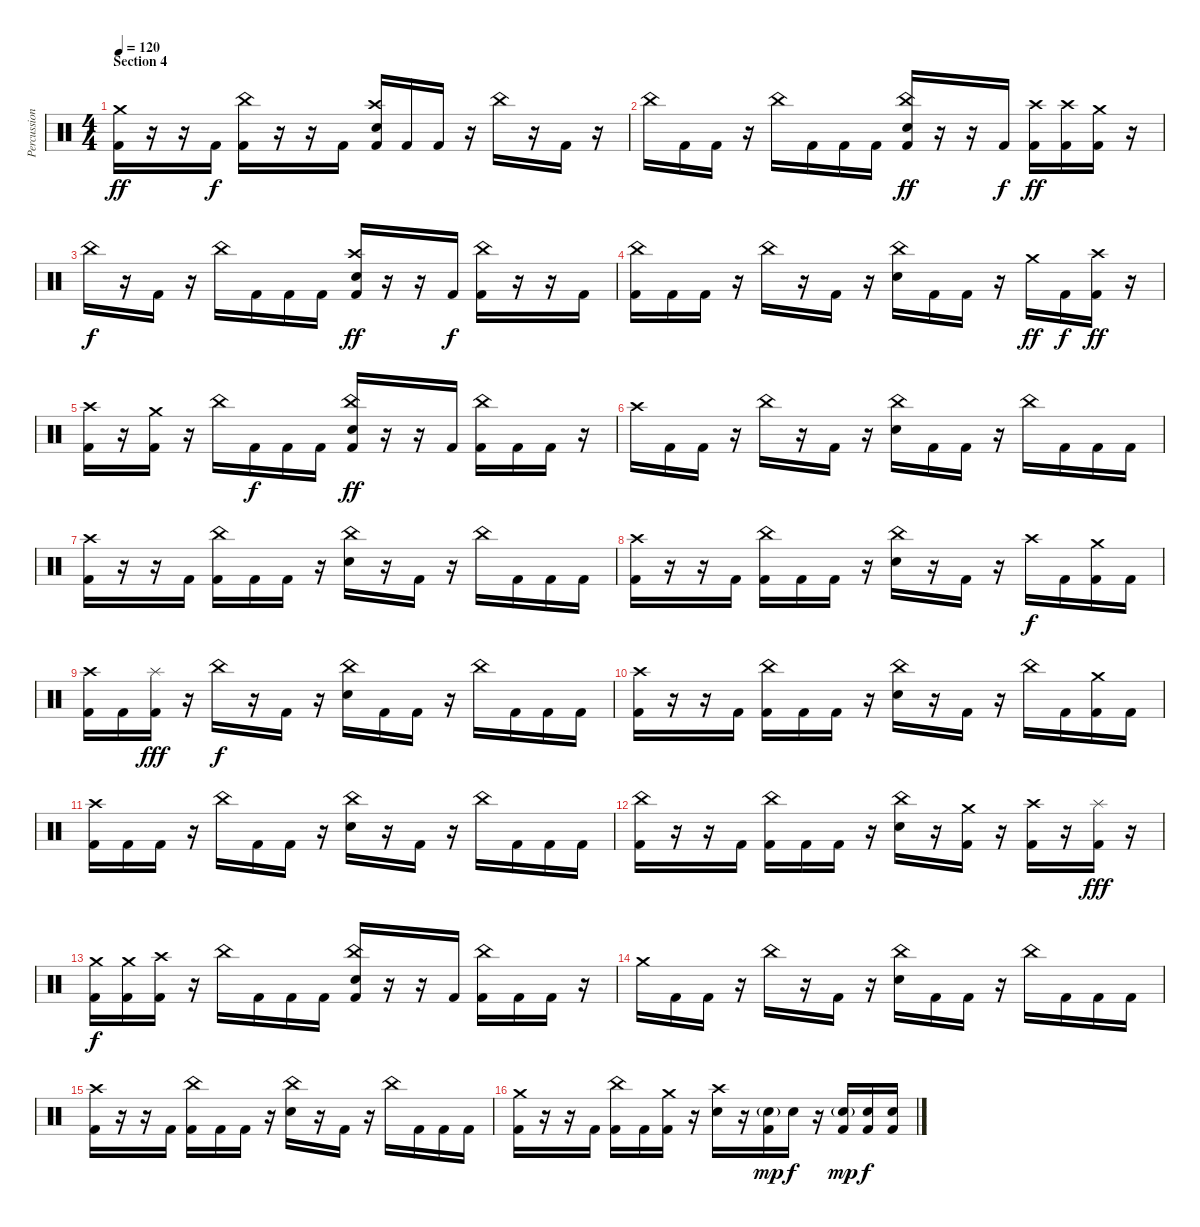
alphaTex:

\track ("Percussion" "Percussion") {instrument percussion}
\staff {score}
\articulation defaults
\ts (4 4)
\section ("" "Section 4")
\tempo 120
\clef neutral
\ks c
("Crash medium (hit)" "Kick (hit) 2").16{dy ff} r.16 r.16 "Kick (hit) 2".16{dy f} ("China (hit)" "Kick (hit) 2").16 r.16 r.16 "Kick (hit) 2".16 ("Crash high (hit)" "Electric Snare (hit)" "Kick (hit) 2").16 "Kick (hit) 2".16 "Kick (hit) 2".16 r.16 "China (hit)".16 r.16 "Kick (hit) 2".16 r.16 |
"China (hit)".16 "Kick (hit) 2".16 "Kick (hit) 2".16 r.16 "China (hit)".16 "Kick (hit) 2".16 "Kick (hit) 2".16 "Kick (hit) 2".16 ("China (hit)" "Electric Snare (hit)" "Kick (hit) 2").16{dy ff} r.16 r.16 "Kick (hit) 2".16{dy f} ("Crash high (hit)" "Kick (hit) 2").16{dy ff} ("Crash high (hit)" "Kick (hit) 2").16 ("Crash medium (hit)" "Kick (hit) 2").16 r.16 |
"China (hit)".16{dy f} r.16 "Kick (hit) 2".16 r.16 "China (hit)".16 "Kick (hit) 2".16 "Kick (hit) 2".16 "Kick (hit) 2".16 ("Crash high (hit)" "Electric Snare (hit)" "Kick (hit) 2").16{dy ff} r.16 r.16 "Kick (hit) 2".16{dy f} ("China (hit)" "Kick (hit) 2").16 r.16 r.16 "Kick (hit) 2".16 |
("China (hit)" "Kick (hit) 2").16 "Kick (hit) 2".16 "Kick (hit) 2".16 r.16 "China (hit)".16 r.16 "Kick (hit) 2".16 r.16 ("China (hit)" "Electric Snare (hit)").16 "Kick (hit) 2".16 "Kick (hit) 2".16 r.16 "Crash medium (hit)".16{dy ff} "Kick (hit) 2".16{dy f} ("Crash high (hit)" "Kick (hit) 2").16{dy ff} r.16 |
("Crash high (hit)" "Kick (hit) 2").16 r.16 ("Crash medium (hit)" "Kick (hit) 2").16 r.16 "China (hit)".16 "Kick (hit) 2".16{dy f} "Kick (hit) 2".16 "Kick (hit) 2".16 ("China (hit)" "Electric Snare (hit)" "Kick (hit) 2").16{dy ff} r.16 r.16 "Kick (hit) 2".16 ("China (hit)" "Kick (hit) 2").16 "Kick (hit) 2".16 "Kick (hit) 2".16 r.16 |
"Crash high (hit)".16 "Kick (hit) 2".16 "Kick (hit) 2".16 r.16 "China (hit)".16 r.16 "Kick (hit) 2".16 r.16 ("China (hit)" "Electric Snare (hit)").16 "Kick (hit) 2".16 "Kick (hit) 2".16 r.16 "China (hit)".16 "Kick (hit) 2".16 "Kick (hit) 2".16 "Kick (hit) 2".16 |
("Crash high (hit)" "Kick (hit) 2").16 r.16 r.16 "Kick (hit) 2".16 ("China (hit)" "Kick (hit) 2").16 "Kick (hit) 2".16 "Kick (hit) 2".16 r.16 ("China (hit)" "Electric Snare (hit)").16 r.16 "Kick (hit) 2".16 r.16 "China (hit)".16 "Kick (hit) 2".16 "Kick (hit) 2".16 "Kick (hit) 2".16 |
("Crash high (hit)" "Kick (hit) 2").16 r.16 r.16 "Kick (hit) 2".16 ("China (hit)" "Kick (hit) 2").16 "Kick (hit) 2".16 "Kick (hit) 2".16 r.16 ("China (hit)" "Electric Snare (hit)").16 r.16 "Kick (hit) 2".16 r.16 "Crash high (hit)".16{dy f} "Kick (hit) 2".16 ("Crash medium (hit)" "Kick (hit) 2").16 "Kick (hit) 2".16 |
("Crash high (hit)" "Kick (hit) 2").16 "Kick (hit) 2".16 ("Splash (hit)" "Kick (hit) 2").16{dy fff} r.16 "China (hit)".16{dy f} r.16 "Kick (hit) 2".16 r.16 ("China (hit)" "Electric Snare (hit)").16 "Kick (hit) 2".16 "Kick (hit) 2".16 r.16 "China (hit)".16 "Kick (hit) 2".16 "Kick (hit) 2".16 "Kick (hit) 2".16 |
("Crash high (hit)" "Kick (hit) 2").16 r.16 r.16 "Kick (hit) 2".16 ("China (hit)" "Kick (hit) 2").16 "Kick (hit) 2".16 "Kick (hit) 2".16 r.16 ("China (hit)" "Electric Snare (hit)").16 r.16 "Kick (hit) 2".16 r.16 "China (hit)".16 "Kick (hit) 2".16 ("Crash medium (hit)" "Kick (hit) 2").16 "Kick (hit) 2".16 |
("Crash high (hit)" "Kick (hit) 2").16 "Kick (hit) 2".16 "Kick (hit) 2".16 r.16 "China (hit)".16 "Kick (hit) 2".16 "Kick (hit) 2".16 r.16 ("China (hit)" "Electric Snare (hit)").16 r.16 "Kick (hit) 2".16 r.16 "China (hit)".16 "Kick (hit) 2".16 "Kick (hit) 2".16 "Kick (hit) 2".16 |
("China (hit)" "Kick (hit) 2").16 r.16 r.16 "Kick (hit) 2".16 ("China (hit)" "Kick (hit) 2").16 "Kick (hit) 2".16 "Kick (hit) 2".16 r.16 ("China (hit)" "Electric Snare (hit)").16 r.16 ("Crash medium (hit)" "Kick (hit) 2").16 r.16 ("Crash high (hit)" "Kick (hit) 2").16 r.16 ("Splash (hit)" "Kick (hit) 2").16{dy fff} r.16 |
("Crash medium (hit)" "Kick (hit) 2").16{dy f} ("Crash medium (hit)" "Kick (hit) 2").16 ("Crash high (hit)" "Kick (hit) 2").16 r.16 "China (hit)".16 "Kick (hit) 2".16 "Kick (hit) 2".16 "Kick (hit) 2".16 ("China (hit)" "Electric Snare (hit)" "Kick (hit) 2").16 r.16 r.16 "Kick (hit) 2".16 ("China (hit)" "Kick (hit) 2").16 "Kick (hit) 2".16 "Kick (hit) 2".16 r.16 |
"Crash medium (hit)".16 "Kick (hit) 2".16 "Kick (hit) 2".16 r.16 "China (hit)".16 r.16 "Kick (hit) 2".16 r.16 ("China (hit)" "Electric Snare (hit)").16 "Kick (hit) 2".16 "Kick (hit) 2".16 r.16 "China (hit)".16 "Kick (hit) 2".16 "Kick (hit) 2".16 "Kick (hit) 2".16 |
("Crash high (hit)" "Kick (hit) 2").16 r.16 r.16 "Kick (hit) 2".16 ("China (hit)" "Kick (hit) 2").16 "Kick (hit) 2".16 "Kick (hit) 2".16 r.16 ("China (hit)" "Electric Snare (hit)").16 r.16 "Kick (hit) 2".16 r.16 "China (hit)".16 "Kick (hit) 2".16 "Kick (hit) 2".16 "Kick (hit) 2".16 |
("Crash medium (hit)" "Kick (hit) 2").16 r.16 r.16 "Kick (hit) 2".16 ("China (hit)" "Kick (hit) 2").16 "Kick (hit) 2".16 ("Crash medium (hit)" "Kick (hit) 2").16 r.16 ("Crash high (hit)" "Electric Snare (hit)").16 r.16 ("Electric Snare (hit)"{g} "Kick (hit) 2").16{dy mp} "Electric Snare (hit)".16{dy f} r.16 ("Electric Snare (hit)"{g} "Kick (hit) 2").16{dy mp} ("Electric Snare (hit)" "Kick (hit) 2").16{dy f} ("Electric Snare (hit)" "Kick (hit) 2").16
